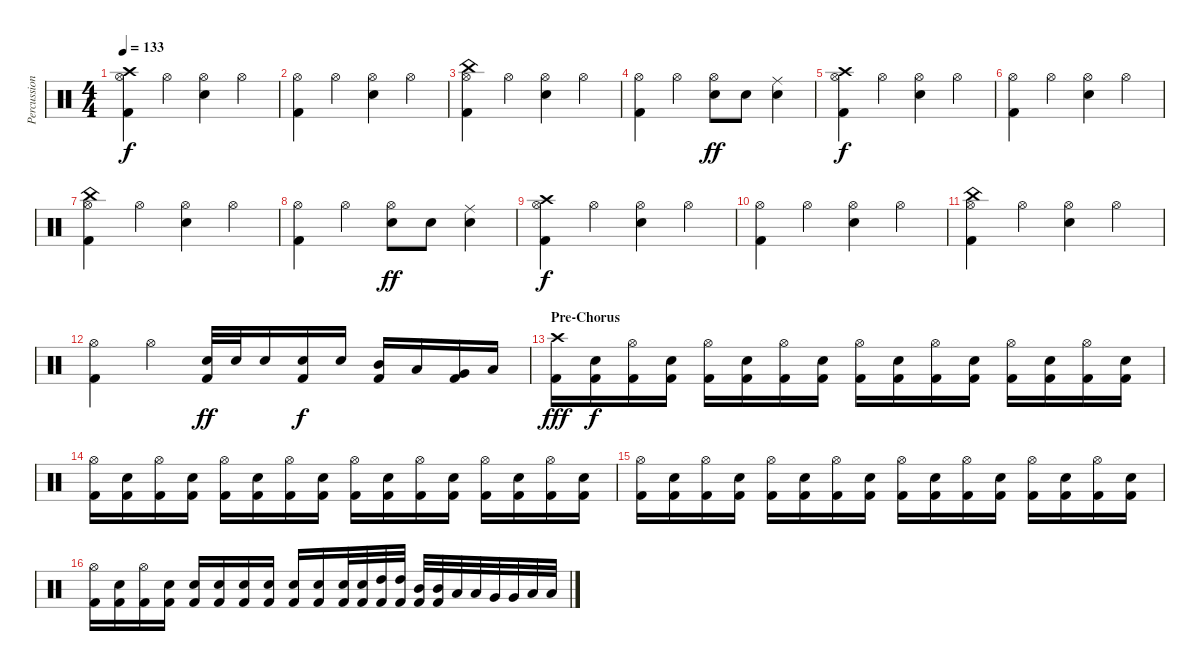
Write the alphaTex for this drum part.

\track ("Percussion" "Percussion") {instrument percussion}
\staff {score}
\articulation defaults
\ts (4 4)
\tempo 133
\clef neutral
\ks c
("Hi-Hat (open)" "Crash high (hit)" "Kick (hit) 2").4{dy f} "Hi-Hat (open)".4 ("Hi-Hat (open)" "Electric Snare (hit)").4 "Hi-Hat (open)".4 |
("Hi-Hat (open)" "Kick (hit) 2").4 "Hi-Hat (open)".4 ("Hi-Hat (open)" "Electric Snare (hit)").4 "Hi-Hat (open)".4 |
("Hi-Hat (open)" "China (hit)" "Kick (hit) 2").4 "Hi-Hat (open)".4 ("Hi-Hat (open)" "Electric Snare (hit)").4 "Hi-Hat (open)".4 |
("Hi-Hat (open)" "Kick (hit) 2").4 "Hi-Hat (open)".4 ("Hi-Hat (open)" "Electric Snare (hit)").8{dy ff} "Electric Snare (hit)".8 ("Ride (middle)" "Electric Snare (hit)").4 |
("Hi-Hat (open)" "Crash high (hit)" "Kick (hit) 2").4{dy f} "Hi-Hat (open)".4 ("Hi-Hat (open)" "Electric Snare (hit)").4 "Hi-Hat (open)".4 |
("Hi-Hat (open)" "Kick (hit) 2").4 "Hi-Hat (open)".4 ("Hi-Hat (open)" "Electric Snare (hit)").4 "Hi-Hat (open)".4 |
("Hi-Hat (open)" "China (hit)" "Kick (hit) 2").4 "Hi-Hat (open)".4 ("Hi-Hat (open)" "Electric Snare (hit)").4 "Hi-Hat (open)".4 |
("Hi-Hat (open)" "Kick (hit) 2").4 "Hi-Hat (open)".4 ("Hi-Hat (open)" "Electric Snare (hit)").8{dy ff} "Electric Snare (hit)".8 ("Ride (middle)" "Electric Snare (hit)").4 |
("Hi-Hat (open)" "Crash high (hit)" "Kick (hit) 2").4{dy f} "Hi-Hat (open)".4 ("Hi-Hat (open)" "Electric Snare (hit)").4 "Hi-Hat (open)".4 |
("Hi-Hat (open)" "Kick (hit) 2").4 "Hi-Hat (open)".4 ("Hi-Hat (open)" "Electric Snare (hit)").4 "Hi-Hat (open)".4 |
("Hi-Hat (open)" "China (hit)" "Kick (hit) 2").4 "Hi-Hat (open)".4 ("Hi-Hat (open)" "Electric Snare (hit)").4 "Hi-Hat (open)".4 |
("Hi-Hat (open)" "Kick (hit) 2").4 "Hi-Hat (open)".4 ("Electric Snare (hit)" "Kick (hit) 2").32{dy ff} "Electric Snare (hit)".32 "Electric Snare (hit)".16 ("Electric Snare (hit)" "Kick (hit) 2").16{dy f} "Electric Snare (hit)".16 ("Mid Tom (hit)" "Kick (hit) 2").16 "Low Tom (hit)".16 ("Very Low Tom (hit)" "Kick (hit) 2").16 "Low Floor Tom (hit)".16 |
\section ("" "Pre-Chorus")
("Crash high (hit)" "Kick (hit) 2").16{dy fff volume 13} ("Electric Snare (hit)" "Kick (hit) 2").16{dy f} ("Hi-Hat (open)" "Kick (hit) 2").16 ("Electric Snare (hit)" "Kick (hit) 2").16 ("Hi-Hat (open)" "Kick (hit) 2").16 ("Electric Snare (hit)" "Kick (hit) 2").16 ("Hi-Hat (open)" "Kick (hit) 2").16 ("Electric Snare (hit)" "Kick (hit) 2").16 ("Hi-Hat (open)" "Kick (hit) 2").16 ("Electric Snare (hit)" "Kick (hit) 2").16 ("Hi-Hat (open)" "Kick (hit) 2").16 ("Electric Snare (hit)" "Kick (hit) 2").16 ("Hi-Hat (open)" "Kick (hit) 2").16 ("Electric Snare (hit)" "Kick (hit) 2").16 ("Hi-Hat (open)" "Kick (hit) 2").16 ("Electric Snare (hit)" "Kick (hit) 2").16 |
("Hi-Hat (open)" "Kick (hit) 2").16 ("Electric Snare (hit)" "Kick (hit) 2").16 ("Hi-Hat (open)" "Kick (hit) 2").16 ("Electric Snare (hit)" "Kick (hit) 2").16 ("Hi-Hat (open)" "Kick (hit) 2").16 ("Electric Snare (hit)" "Kick (hit) 2").16 ("Hi-Hat (open)" "Kick (hit) 2").16 ("Electric Snare (hit)" "Kick (hit) 2").16 ("Hi-Hat (open)" "Kick (hit) 2").16 ("Electric Snare (hit)" "Kick (hit) 2").16 ("Hi-Hat (open)" "Kick (hit) 2").16 ("Electric Snare (hit)" "Kick (hit) 2").16 ("Hi-Hat (open)" "Kick (hit) 2").16 ("Electric Snare (hit)" "Kick (hit) 2").16 ("Hi-Hat (open)" "Kick (hit) 2").16 ("Electric Snare (hit)" "Kick (hit) 2").16 |
("Hi-Hat (open)" "Kick (hit) 2").16 ("Electric Snare (hit)" "Kick (hit) 2").16 ("Hi-Hat (open)" "Kick (hit) 2").16 ("Electric Snare (hit)" "Kick (hit) 2").16 ("Hi-Hat (open)" "Kick (hit) 2").16 ("Electric Snare (hit)" "Kick (hit) 2").16 ("Hi-Hat (open)" "Kick (hit) 2").16 ("Electric Snare (hit)" "Kick (hit) 2").16 ("Hi-Hat (open)" "Kick (hit) 2").16 ("Electric Snare (hit)" "Kick (hit) 2").16 ("Hi-Hat (open)" "Kick (hit) 2").16 ("Electric Snare (hit)" "Kick (hit) 2").16 ("Hi-Hat (open)" "Kick (hit) 2").16 ("Electric Snare (hit)" "Kick (hit) 2").16 ("Hi-Hat (open)" "Kick (hit) 2").16 ("Electric Snare (hit)" "Kick (hit) 2").16 |
("Hi-Hat (open)" "Kick (hit) 2").16 ("Electric Snare (hit)" "Kick (hit) 2").16 ("Hi-Hat (open)" "Kick (hit) 2").16 ("Electric Snare (hit)" "Kick (hit) 2").16 ("Electric Snare (hit)" "Kick (hit) 2").16 ("Electric Snare (hit)" "Kick (hit) 2").16 ("Electric Snare (hit)" "Kick (hit) 2").16 ("Electric Snare (hit)" "Kick (hit) 2").16 ("Electric Snare (hit)" "Kick (hit) 2").16 ("Electric Snare (hit)" "Kick (hit) 2").16 ("Electric Snare (hit)" "Kick (hit) 2").32 ("Electric Snare (hit)" "Kick (hit) 2").32 ("High Tom (hit)" "Kick (hit) 2").32 ("High Tom (hit)" "Kick (hit) 2").32 ("Mid Tom (hit)" "Kick (hit) 2").32 ("Mid Tom (hit)" "Kick (hit) 2").32 "Low Tom (hit)".32 "Low Tom (hit)".32 "Very Low Tom (hit)".32 "Very Low Tom (hit)".32 "Low Floor Tom (hit)".32 "Low Floor Tom (hit)".32
